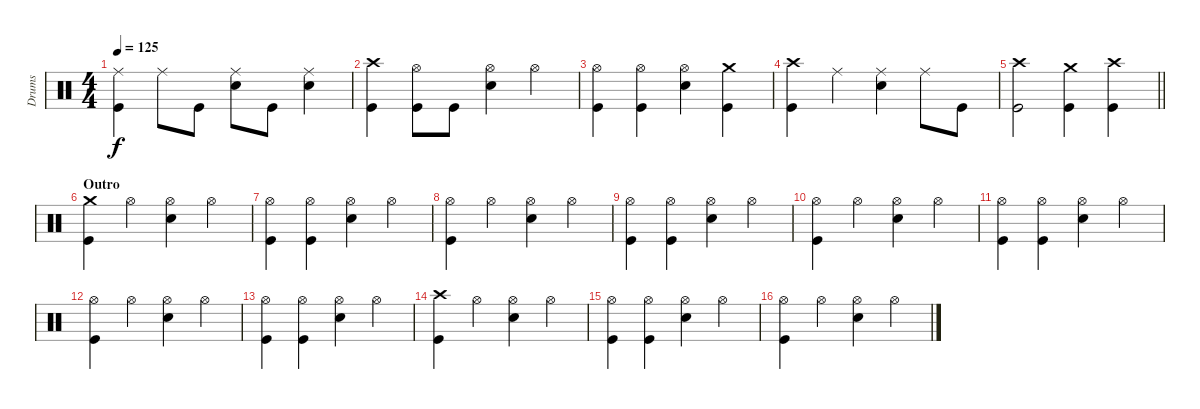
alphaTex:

\track ("Drums" "Drums") {instrument percussion}
\staff {score}
\articulation defaults
\ts (4 4)
\tempo 125
\clef neutral
\ks c
("Ride (middle)" "Kick (hit)").4{dy f} "Ride (middle)".8 "Kick (hit)".8 ("Ride (middle)" "Snare (hit) 2").8 "Kick (hit)".8 ("Ride (middle)" "Snare (hit) 2").4 |
("Crash high (hit)" "Kick (hit)").4 ("Hi-Hat (open)" "Kick (hit)").8 "Kick (hit)".8 ("Hi-Hat (open)" "Snare (hit) 2").4 "Hi-Hat (open)".4 |
("Hi-Hat (open)" "Kick (hit)").4 ("Hi-Hat (open)" "Kick (hit)").4 ("Hi-Hat (open)" "Snare (hit) 2").4 ("Crash medium (hit)" "Kick (hit)").4 |
("Crash high (hit)" "Kick (hit)").4 "Ride (middle)".4 ("Ride (middle)" "Snare (hit) 2").4 "Ride (middle)".8 "Kick (hit)".8 |
\barLineRight lightlight
("Crash high (hit)" "Kick (hit)").2 ("Crash medium (hit)" "Kick (hit)").4 ("Crash high (hit)" "Kick (hit)").4 |
\section ("" "Outro")
("Crash medium (hit)" "Kick (hit)").4 "Hi-Hat (open)".4 ("Hi-Hat (open)" "Snare (hit) 2").4 "Hi-Hat (open)".4 |
("Hi-Hat (open)" "Kick (hit)").4 ("Hi-Hat (open)" "Kick (hit)").4 ("Hi-Hat (open)" "Snare (hit) 2").4 "Hi-Hat (open)".4 |
("Hi-Hat (open)" "Kick (hit)").4 "Hi-Hat (open)".4 ("Hi-Hat (open)" "Snare (hit) 2").4 "Hi-Hat (open)".4 |
("Hi-Hat (open)" "Kick (hit)").4 ("Hi-Hat (open)" "Kick (hit)").4 ("Hi-Hat (open)" "Snare (hit) 2").4 "Hi-Hat (open)".4 |
("Hi-Hat (open)" "Kick (hit)").4 "Hi-Hat (open)".4 ("Hi-Hat (open)" "Snare (hit) 2").4 "Hi-Hat (open)".4 |
("Hi-Hat (open)" "Kick (hit)").4 ("Hi-Hat (open)" "Kick (hit)").4 ("Hi-Hat (open)" "Snare (hit) 2").4 "Hi-Hat (open)".4 |
("Hi-Hat (open)" "Kick (hit)").4 "Hi-Hat (open)".4 ("Hi-Hat (open)" "Snare (hit) 2").4 "Hi-Hat (open)".4 |
("Hi-Hat (open)" "Kick (hit)").4 ("Hi-Hat (open)" "Kick (hit)").4 ("Hi-Hat (open)" "Snare (hit) 2").4 "Hi-Hat (open)".4 |
("Crash high (hit)" "Kick (hit)").4 "Hi-Hat (open)".4 ("Hi-Hat (open)" "Snare (hit) 2").4 "Hi-Hat (open)".4 |
("Hi-Hat (open)" "Kick (hit)").4 ("Hi-Hat (open)" "Kick (hit)").4 ("Hi-Hat (open)" "Snare (hit) 2").4 "Hi-Hat (open)".4 |
("Hi-Hat (open)" "Kick (hit)").4 "Hi-Hat (open)".4 ("Hi-Hat (open)" "Snare (hit) 2").4 "Hi-Hat (open)".4
